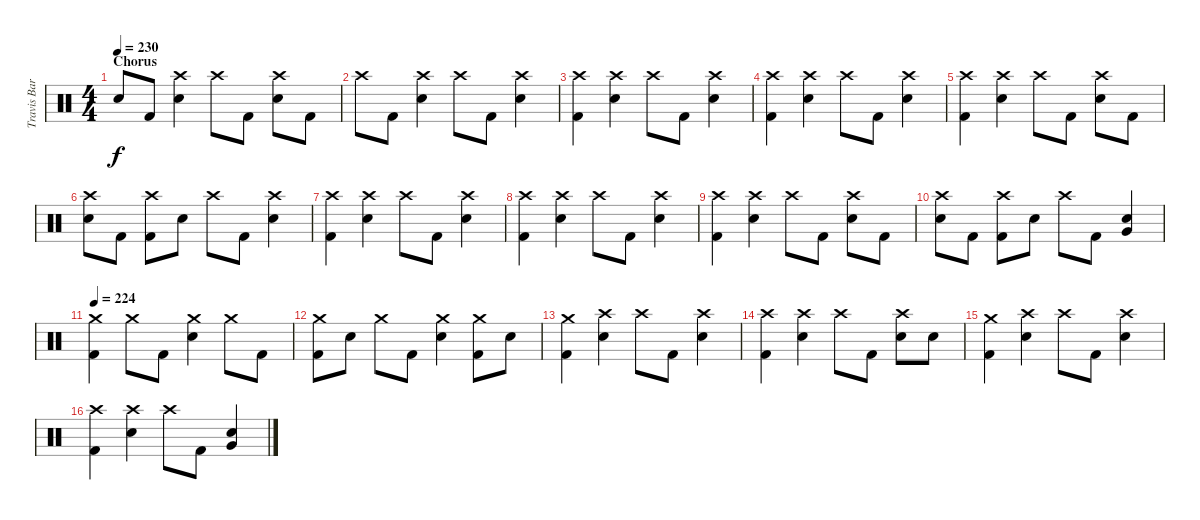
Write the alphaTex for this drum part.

\track ("Travis Barker - Drums" "Travis Bar") {instrument percussion}
\staff {score}
\articulation defaults
\ts (4 4)
\section ("" "Chorus")
\tempo 230
\clef neutral
\ks c "Snare (hit)"{t}.8{dy f} "Kick (hit) 2".8
("Crash high (hit)" "Electric Snare (hit)").4 "Crash high (hit)".8 "Kick (hit) 2".8 ("Crash high (hit)" "Electric Snare (hit)").8 "Kick (hit) 2".8 |
"Crash high (hit)".8 "Kick (hit) 2".8 ("Crash high (hit)" "Electric Snare (hit)").4 "Crash high (hit)".8 "Kick (hit) 2".8 ("Crash high (hit)" "Electric Snare (hit)").4 |
("Crash high (hit)" "Kick (hit) 2").4 ("Crash high (hit)" "Electric Snare (hit)").4 "Crash high (hit)".8 "Kick (hit) 2".8 ("Crash high (hit)" "Electric Snare (hit)").4 |
("Crash high (hit)" "Kick (hit) 2").4 ("Crash high (hit)" "Electric Snare (hit)").4 "Crash high (hit)".8 "Kick (hit) 2".8 ("Crash high (hit)" "Electric Snare (hit)").4 |
("Crash high (hit)" "Kick (hit) 2").4 ("Crash high (hit)" "Electric Snare (hit)").4 "Crash high (hit)".8 "Kick (hit) 2".8 ("Crash high (hit)" "Electric Snare (hit)").8 "Kick (hit) 2".8 |
("Crash high (hit)" "Electric Snare (hit)").8 "Kick (hit) 2".8 ("Crash high (hit)" "Kick (hit) 2").8 "Electric Snare (hit)".8 "Crash high (hit)".8 "Kick (hit) 2".8 ("Crash high (hit)" "Electric Snare (hit)").4 |
("Crash high (hit)" "Kick (hit) 2").4 ("Crash high (hit)" "Electric Snare (hit)").4 "Crash high (hit)".8 "Kick (hit) 2".8 ("Crash high (hit)" "Electric Snare (hit)").4 |
("Crash high (hit)" "Kick (hit) 2").4 ("Crash high (hit)" "Electric Snare (hit)").4 "Crash high (hit)".8 "Kick (hit) 2".8 ("Crash high (hit)" "Electric Snare (hit)").4 |
("Crash high (hit)" "Kick (hit) 2").4 ("Crash high (hit)" "Electric Snare (hit)").4 "Crash high (hit)".8 "Kick (hit) 2".8 ("Crash high (hit)" "Electric Snare (hit)").8 "Kick (hit) 2".8 |
("Crash high (hit)" "Electric Snare (hit)").8 "Kick (hit) 2".8 ("Crash high (hit)" "Kick (hit) 2").8 "Electric Snare (hit)".8 "Crash high (hit)".8 "Kick (hit) 2".8 ("Very Low Tom (hit)" "Electric Snare (hit)").4 |
\tempo 224
("Crash medium (hit)" "Kick (hit) 2").4 "Crash medium (hit)".8 "Kick (hit) 2".8 ("Crash medium (hit)" "Electric Snare (hit)").4 "Crash medium (hit)".8 "Kick (hit) 2".8 |
("Crash medium (hit)" "Kick (hit) 2").8 "Electric Snare (hit)".8 "Crash medium (hit)".8 "Kick (hit) 2".8 ("Crash medium (hit)" "Electric Snare (hit)").4 ("Crash medium (hit)" "Kick (hit) 2").8 "Electric Snare (hit)".8 |
("Crash medium (hit)" "Kick (hit) 2").4 ("Crash high (hit)" "Electric Snare (hit)").4 "Crash high (hit)".8 "Kick (hit) 2".8 ("Crash high (hit)" "Electric Snare (hit)").4 |
("Crash high (hit)" "Kick (hit) 2").4 ("Crash high (hit)" "Electric Snare (hit)").4 "Crash high (hit)".8 "Kick (hit) 2".8 ("Crash high (hit)" "Electric Snare (hit)").8 "Electric Snare (hit)".8 |
("Crash medium (hit)" "Kick (hit) 2").4 ("Crash high (hit)" "Electric Snare (hit)").4 "Crash high (hit)".8 "Kick (hit) 2".8 ("Crash high (hit)" "Electric Snare (hit)").4 |
("Crash high (hit)" "Kick (hit) 2").4 ("Crash high (hit)" "Electric Snare (hit)").4 "Crash high (hit)".8 "Kick (hit) 2".8 ("Very Low Tom (hit)" "Electric Snare (hit)").4
